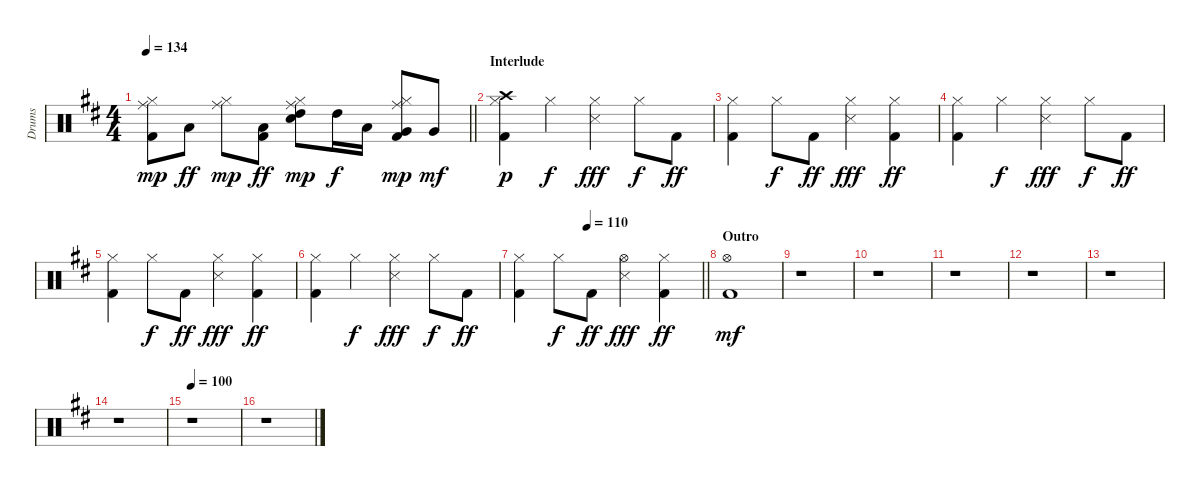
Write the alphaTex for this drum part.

\track ("Drums" "Drums") {instrument percussion}
\staff {score}
\articulation defaults
\ts (4 4)
\tempo 134
\clef neutral
\barLineRight lightlight
\ks d
("Kick (hit) 2" "Hi-Hat (closed)" "Ride (middle)").8{dy mp} "Low Tom (hit)".8{dy ff} ("Hi-Hat (closed)" "Ride (middle)").8{dy mp} ("Kick (hit) 2" "Low Tom (hit)").8{dy ff} ("Snare (hit) 2" "Hi-Hat (closed)" "High Tom (hit)" "Ride (middle)").8{dy mp} "High Tom (hit)".16{dy f} "Low Tom (hit)".16 ("Kick (hit) 2" "Hi-Hat (closed)" "Very Low Tom (hit)" "Ride (middle)").8{dy mp} "Very Low Tom (hit)".8{dy mf} |
\section ("" "Interlude")
("Kick (hit) 2" "Hi-Hat (closed)" "Crash high (hit)").4{dy p} "Hi-Hat (closed)".4{dy f} ("Snare (side stick) 3" "Hi-Hat (closed)").4{dy fff} "Hi-Hat (closed)".8{dy f} "Kick (hit) 2".8{dy ff} |
("Kick (hit) 2" "Hi-Hat (closed)").4 "Hi-Hat (closed)".8{dy f} "Kick (hit) 2".8{dy ff} ("Snare (side stick) 3" "Hi-Hat (closed)").4{dy fff} ("Kick (hit) 2" "Hi-Hat (closed)").4{dy ff} |
("Kick (hit) 2" "Hi-Hat (closed)").4 "Hi-Hat (closed)".4{dy f} ("Snare (side stick) 3" "Hi-Hat (closed)").4{dy fff} "Hi-Hat (closed)".8{dy f} "Kick (hit) 2".8{dy ff} |
("Kick (hit) 2" "Hi-Hat (closed)").4 "Hi-Hat (closed)".8{dy f} "Kick (hit) 2".8{dy ff} ("Snare (side stick) 3" "Hi-Hat (closed)").4{dy fff} ("Kick (hit) 2" "Hi-Hat (closed)").4{dy ff} |
("Kick (hit) 2" "Hi-Hat (closed)").4 "Hi-Hat (closed)".4{dy f} ("Snare (side stick) 3" "Hi-Hat (closed)").4{dy fff} "Hi-Hat (closed)".8{dy f} "Kick (hit) 2".8{dy ff} |
\tempo (110 0.375)
\barLineRight lightlight
("Kick (hit) 2" "Hi-Hat (closed)").4 "Hi-Hat (closed)".8{dy f} "Kick (hit) 2".8{dy ff} ("Snare (side stick) 3" "Hi-Hat (open)").4{dy fff} ("Kick (hit) 2" "Hi-Hat (closed)").4{dy ff} |
\section ("" "Outro")
("Kick (hit) 2" "Hi-Hat (open)").1{dy mf} |
r.1 |
r.1 |
r.1 |
r.1 |
r.1 |
r.1 |
\tempo 100
r.1 |
r.1
